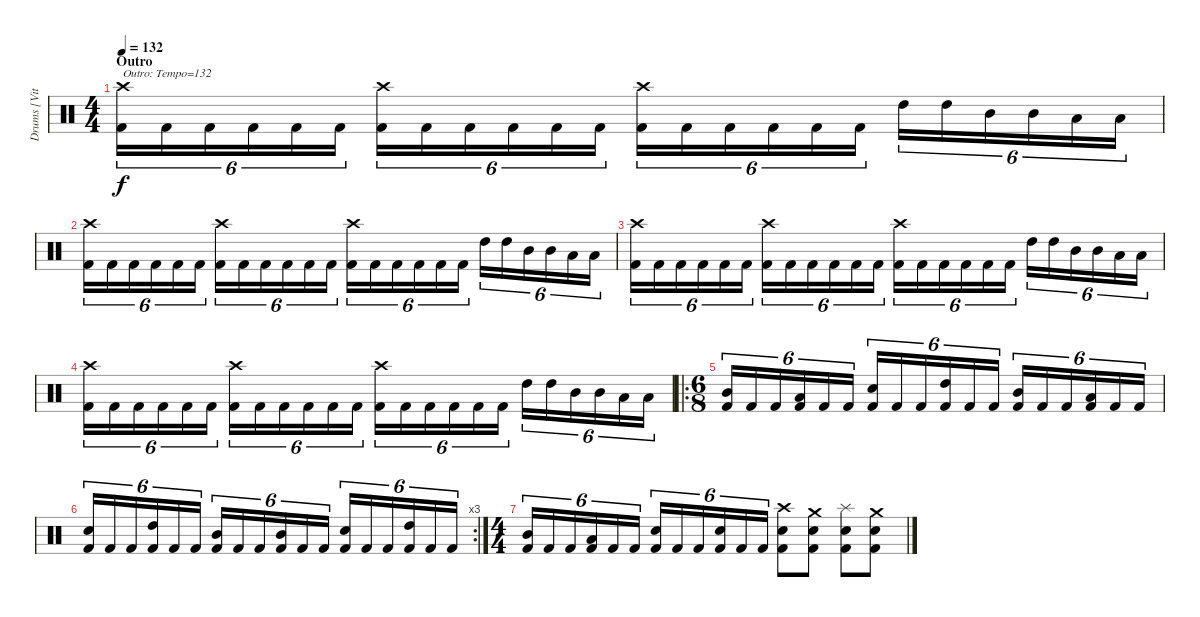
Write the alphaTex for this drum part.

\track ("Drums [Vitek]" "Drums [Vit") {instrument percussion}
\staff {score}
\articulation defaults
\ts (4 4)
\section ("" "Outro")
\tempo 132
\clef neutral
\ks c
("Crash high (hit)" "Kick (hit) 2").16{tu (6 4) txt "Outro: Tempo=132" dy f} "Kick (hit) 2".16{tu (6 4)} "Kick (hit) 2".16{tu (6 4)} "Kick (hit) 2".16{tu (6 4)} "Kick (hit) 2".16{tu (6 4)} "Kick (hit) 2".16{tu (6 4)} ("Crash high (hit)" "Kick (hit) 2").16{tu (6 4)} "Kick (hit) 2".16{tu (6 4)} "Kick (hit) 2".16{tu (6 4)} "Kick (hit) 2".16{tu (6 4)} "Kick (hit) 2".16{tu (6 4)} "Kick (hit) 2".16{tu (6 4)} ("Crash high (hit)" "Kick (hit) 2").16{tu (6 4)} "Kick (hit) 2".16{tu (6 4)} "Kick (hit) 2".16{tu (6 4)} "Kick (hit) 2".16{tu (6 4)} "Kick (hit) 2".16{tu (6 4)} "Kick (hit) 2".16{tu (6 4)} "High Tom (hit)".16{tu (6 4)} "High Tom (hit)".16{tu (6 4)} "Mid Tom (hit)".16{tu (6 4)} "Mid Tom (hit)".16{tu (6 4)} "Low Tom (hit)".16{tu (6 4)} "Low Tom (hit)".16{tu (6 4)} |
("Crash high (hit)" "Kick (hit) 2").16{tu (6 4)} "Kick (hit) 2".16{tu (6 4)} "Kick (hit) 2".16{tu (6 4)} "Kick (hit) 2".16{tu (6 4)} "Kick (hit) 2".16{tu (6 4)} "Kick (hit) 2".16{tu (6 4)} ("Crash high (hit)" "Kick (hit) 2").16{tu (6 4)} "Kick (hit) 2".16{tu (6 4)} "Kick (hit) 2".16{tu (6 4)} "Kick (hit) 2".16{tu (6 4)} "Kick (hit) 2".16{tu (6 4)} "Kick (hit) 2".16{tu (6 4)} ("Crash high (hit)" "Kick (hit) 2").16{tu (6 4)} "Kick (hit) 2".16{tu (6 4)} "Kick (hit) 2".16{tu (6 4)} "Kick (hit) 2".16{tu (6 4)} "Kick (hit) 2".16{tu (6 4)} "Kick (hit) 2".16{tu (6 4)} "High Tom (hit)".16{tu (6 4)} "High Tom (hit)".16{tu (6 4)} "Mid Tom (hit)".16{tu (6 4)} "Mid Tom (hit)".16{tu (6 4)} "Low Tom (hit)".16{tu (6 4)} "Low Tom (hit)".16{tu (6 4)} |
("Crash high (hit)" "Kick (hit) 2").16{tu (6 4)} "Kick (hit) 2".16{tu (6 4)} "Kick (hit) 2".16{tu (6 4)} "Kick (hit) 2".16{tu (6 4)} "Kick (hit) 2".16{tu (6 4)} "Kick (hit) 2".16{tu (6 4)} ("Crash high (hit)" "Kick (hit) 2").16{tu (6 4)} "Kick (hit) 2".16{tu (6 4)} "Kick (hit) 2".16{tu (6 4)} "Kick (hit) 2".16{tu (6 4)} "Kick (hit) 2".16{tu (6 4)} "Kick (hit) 2".16{tu (6 4)} ("Crash high (hit)" "Kick (hit) 2").16{tu (6 4)} "Kick (hit) 2".16{tu (6 4)} "Kick (hit) 2".16{tu (6 4)} "Kick (hit) 2".16{tu (6 4)} "Kick (hit) 2".16{tu (6 4)} "Kick (hit) 2".16{tu (6 4)} "High Tom (hit)".16{tu (6 4)} "High Tom (hit)".16{tu (6 4)} "Mid Tom (hit)".16{tu (6 4)} "Mid Tom (hit)".16{tu (6 4)} "Low Tom (hit)".16{tu (6 4)} "Low Tom (hit)".16{tu (6 4)} |
("Crash high (hit)" "Kick (hit) 2").16{tu (6 4)} "Kick (hit) 2".16{tu (6 4)} "Kick (hit) 2".16{tu (6 4)} "Kick (hit) 2".16{tu (6 4)} "Kick (hit) 2".16{tu (6 4)} "Kick (hit) 2".16{tu (6 4)} ("Crash high (hit)" "Kick (hit) 2").16{tu (6 4)} "Kick (hit) 2".16{tu (6 4)} "Kick (hit) 2".16{tu (6 4)} "Kick (hit) 2".16{tu (6 4)} "Kick (hit) 2".16{tu (6 4)} "Kick (hit) 2".16{tu (6 4)} ("Crash high (hit)" "Kick (hit) 2").16{tu (6 4)} "Kick (hit) 2".16{tu (6 4)} "Kick (hit) 2".16{tu (6 4)} "Kick (hit) 2".16{tu (6 4)} "Kick (hit) 2".16{tu (6 4)} "Kick (hit) 2".16{tu (6 4)} "High Tom (hit)".16{tu (6 4)} "High Tom (hit)".16{tu (6 4)} "Mid Tom (hit)".16{tu (6 4)} "Mid Tom (hit)".16{tu (6 4)} "Low Tom (hit)".16{tu (6 4)} "Low Tom (hit)".16{tu (6 4)} |
\ro
\ts (6 8)
("Mid Tom (hit)" "Kick (hit) 2").16{tu (6 4)} "Kick (hit) 2".16{tu (6 4)} "Kick (hit) 2".16{tu (6 4)} ("Low Tom (hit)" "Kick (hit) 2").16{tu (6 4)} "Kick (hit) 2".16{tu (6 4)} "Kick (hit) 2".16{tu (6 4)} ("Electric Snare (hit)" "Kick (hit) 2").16{tu (6 4)} "Kick (hit) 2".16{tu (6 4)} "Kick (hit) 2".16{tu (6 4)} ("High Tom (hit)" "Kick (hit) 2").16{tu (6 4)} "Kick (hit) 2".16{tu (6 4)} "Kick (hit) 2".16{tu (6 4)} ("Mid Tom (hit)" "Kick (hit) 2").16{tu (6 4)} "Kick (hit) 2".16{tu (6 4)} "Kick (hit) 2".16{tu (6 4)} ("Low Tom (hit)" "Kick (hit) 2").16{tu (6 4)} "Kick (hit) 2".16{tu (6 4)} "Kick (hit) 2".16{tu (6 4)} |
\rc 3
("Electric Snare (hit)" "Kick (hit) 2").16{tu (6 4)} "Kick (hit) 2".16{tu (6 4)} "Kick (hit) 2".16{tu (6 4)} ("High Tom (hit)" "Kick (hit) 2").16{tu (6 4)} "Kick (hit) 2".16{tu (6 4)} "Kick (hit) 2".16{tu (6 4)} ("Mid Tom (hit)" "Kick (hit) 2").16{tu (6 4)} "Kick (hit) 2".16{tu (6 4)} "Kick (hit) 2".16{tu (6 4)} ("Mid Tom (hit)" "Kick (hit) 2").16{tu (6 4)} "Kick (hit) 2".16{tu (6 4)} "Kick (hit) 2".16{tu (6 4)} ("Electric Snare (hit)" "Kick (hit) 2").16{tu (6 4)} "Kick (hit) 2".16{tu (6 4)} "Kick (hit) 2".16{tu (6 4)} ("High Tom (hit)" "Kick (hit) 2").16{tu (6 4)} "Kick (hit) 2".16{tu (6 4)} "Kick (hit) 2".16{tu (6 4)} |
\ts (4 4)
("Mid Tom (hit)" "Kick (hit) 2").16{tu (6 4)} "Kick (hit) 2".16{tu (6 4)} "Kick (hit) 2".16{tu (6 4)} ("Low Tom (hit)" "Kick (hit) 2").16{tu (6 4)} "Kick (hit) 2".16{tu (6 4)} "Kick (hit) 2".16{tu (6 4)} ("Electric Snare (hit)" "Kick (hit) 2").16{tu (6 4)} "Kick (hit) 2".16{tu (6 4)} "Kick (hit) 2".16{tu (6 4)} ("Electric Snare (hit)" "Kick (hit) 2").16{tu (6 4)} "Kick (hit) 2".16{tu (6 4)} "Kick (hit) 2".16{tu (6 4)} ("Crash high (hit)" "Electric Snare (hit)" "Kick (hit) 2").8 ("Crash medium (hit)" "Electric Snare (hit)" "Kick (hit) 2").8 ("Splash (hit)" "Electric Snare (hit)" "Kick (hit) 2").8 ("Crash medium (hit)" "Electric Snare (hit)" "Kick (hit) 2").8
